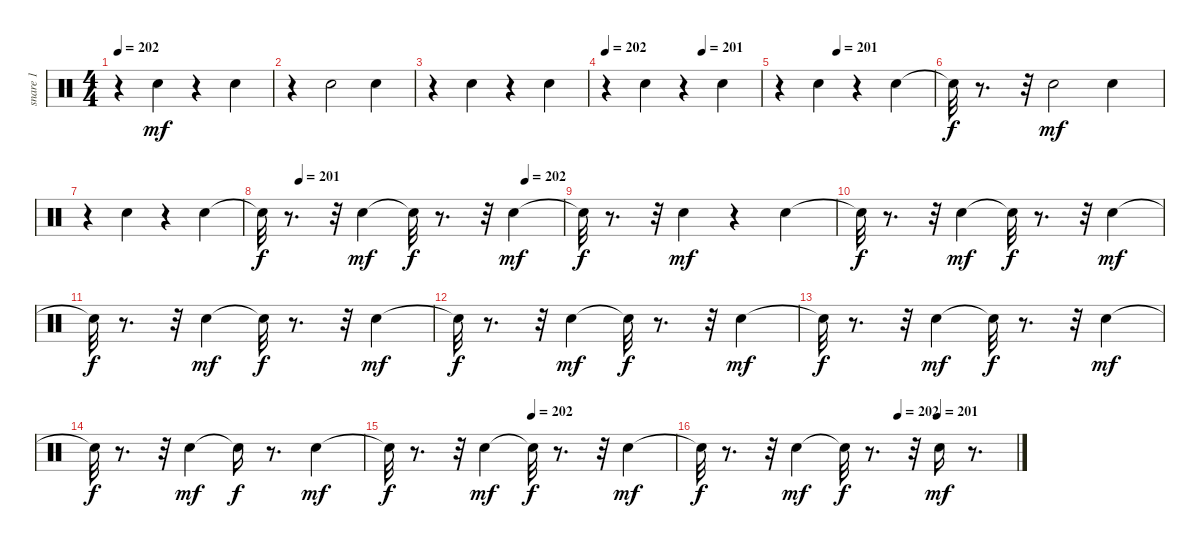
\track ("snare 1" "snare 1") {instrument percussion}
\staff {score}
\articulation defaults
\ts (4 4)
\tempo 202
\clef neutral
\ks c
r.4{dy f} "Snare (hit) 2".4{dy mf} r.4 "Snare (hit) 2".4 |
r.4 "Snare (hit) 2".2 "Snare (hit) 2".4 |
r.4 "Snare (hit) 2".4 r.4 "Snare (hit) 2".4 |
\tempo 202
\tempo (201 0.625)
r.4 "Snare (hit) 2".4 r.4 "Snare (hit) 2".4 |
\tempo (201 0.375)
r.4 "Snare (hit) 2".4 r.4 "Snare (hit) 2".4 |
"Snare (hit)"{t}.32{dy f} r.8{d} r.32 "Snare (hit) 2".2{dy mf} "Snare (hit) 2".4 |
r.4 "Snare (hit) 2".4 r.4 "Snare (hit) 2".4 |
\tempo (201 0.125)
\tempo (202 0.875)
"Snare (hit)"{t}.32{dy f} r.8{d} r.32 "Snare (hit) 2".4{dy mf} "Snare (hit)"{t}.32{dy f} r.8{d} r.32 "Snare (hit) 2".4{dy mf} |
"Snare (hit)"{t}.32{dy f} r.8{d} r.32 "Snare (hit) 2".4{dy mf} r.4 "Snare (hit) 2".4 |
"Snare (hit)"{t}.32{dy f} r.8{d} r.32 "Snare (hit) 2".4{dy mf} "Snare (hit)"{t}.32{dy f} r.8{d} r.32 "Snare (hit) 2".4{dy mf} |
"Snare (hit)"{t}.32{dy f} r.8{d} r.32 "Snare (hit) 2".4{dy mf} "Snare (hit)"{t}.32{dy f} r.8{d} r.32 "Snare (hit) 2".4{dy mf} |
"Snare (hit)"{t}.32{dy f} r.8{d} r.32 "Snare (hit) 2".4{dy mf} "Snare (hit)"{t}.32{dy f} r.8{d} r.32 "Snare (hit) 2".4{dy mf} |
"Snare (hit)"{t}.32{dy f} r.8{d} r.32 "Snare (hit) 2".4{dy mf} "Snare (hit)"{t}.32{dy f} r.8{d} r.32 "Snare (hit) 2".4{dy mf} |
"Snare (hit)"{t}.32{dy f} r.8{d} r.32 "Snare (hit) 2".4{dy mf} "Snare (hit)"{t}.16{dy f} r.8{d} "Snare (hit) 2".4{dy mf} |
\tempo (202 0.5)
"Snare (hit)"{t}.32{dy f} r.8{d} r.32 "Snare (hit) 2".4{dy mf} "Snare (hit)"{t}.32{dy f} r.8{d} r.32 "Snare (hit) 2".4{dy mf} |
\tempo (202 0.625)
\tempo (201 0.75)
"Snare (hit)"{t}.32{dy f} r.8{d} r.32 "Snare (hit) 2".4{dy mf} "Snare (hit)"{t}.32{dy f} r.8{d} r.32 "Snare (hit) 2".16{dy mf} r.8{d}
